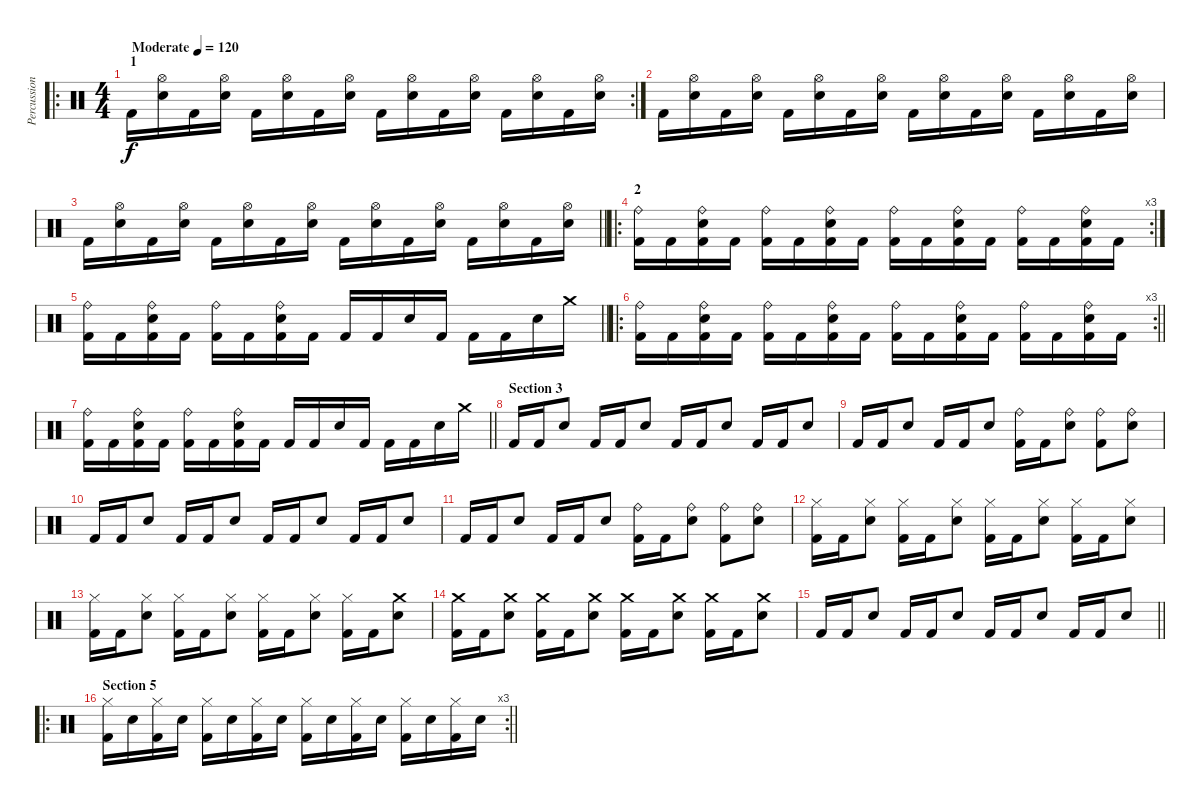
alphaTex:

\track ("Percussion" "Percussion") {instrument percussion}
\staff {score}
\articulation defaults
\ro
\rc 2
\ts (4 4)
\section ("" " 1")
\tempo (120 "Moderate")
\clef neutral
\ks c "Kick (hit) 2".16{dy f}
("Snare (hit) 2" "Hi-Hat (open)").16 "Kick (hit) 2".16 ("Snare (hit) 2" "Hi-Hat (open)").16 "Kick (hit) 2".16 ("Snare (hit) 2" "Hi-Hat (open)").16 "Kick (hit) 2".16 ("Snare (hit) 2" "Hi-Hat (open)").16 "Kick (hit) 2".16 ("Snare (hit) 2" "Hi-Hat (open)").16 "Kick (hit) 2".16 ("Snare (hit) 2" "Hi-Hat (open)").16 "Kick (hit) 2".16 ("Snare (hit) 2" "Hi-Hat (open)").16 "Kick (hit) 2".16 ("Snare (hit) 2" "Hi-Hat (open)").16 |
"Kick (hit) 2".16 ("Snare (hit) 2" "Hi-Hat (open)").16 "Kick (hit) 2".16 ("Snare (hit) 2" "Hi-Hat (open)").16 "Kick (hit) 2".16 ("Snare (hit) 2" "Hi-Hat (open)").16 "Kick (hit) 2".16 ("Snare (hit) 2" "Hi-Hat (open)").16 "Kick (hit) 2".16 ("Snare (hit) 2" "Hi-Hat (open)").16 "Kick (hit) 2".16 ("Snare (hit) 2" "Hi-Hat (open)").16 "Kick (hit) 2".16 ("Snare (hit) 2" "Hi-Hat (open)").16 "Kick (hit) 2".16 ("Snare (hit) 2" "Hi-Hat (open)").16 |
\barLineRight lightlight "Kick (hit) 2".16
("Snare (hit) 2" "Hi-Hat (open)").16 "Kick (hit) 2".16 ("Snare (hit) 2" "Hi-Hat (open)").16 "Kick (hit) 2".16 ("Snare (hit) 2" "Hi-Hat (open)").16 "Kick (hit) 2".16 ("Snare (hit) 2" "Hi-Hat (open)").16 "Kick (hit) 2".16 ("Snare (hit) 2" "Hi-Hat (open)").16 "Kick (hit) 2".16 ("Snare (hit) 2" "Hi-Hat (open)").16 "Kick (hit) 2".16 ("Snare (hit) 2" "Hi-Hat (open)").16 "Kick (hit) 2".16 ("Snare (hit) 2" "Hi-Hat (open)").16 |
\ro
\rc 3
\section ("" "2")
("Kick (hit) 2" "Ride (bell)").16 "Kick (hit) 2".16 ("Kick (hit) 2" "Snare (hit) 2" "Ride (bell)").16 "Kick (hit) 2".16 ("Kick (hit) 2" "Ride (bell)").16 "Kick (hit) 2".16 ("Kick (hit) 2" "Snare (hit) 2" "Ride (bell)").16 "Kick (hit) 2".16 ("Kick (hit) 2" "Ride (bell)").16 "Kick (hit) 2".16 ("Kick (hit) 2" "Snare (hit) 2" "Ride (bell)").16 "Kick (hit) 2".16 ("Kick (hit) 2" "Ride (bell)").16 "Kick (hit) 2".16 ("Kick (hit) 2" "Snare (hit) 2" "Ride (bell)").16 "Kick (hit) 2".16 |
\barLineRight lightlight
("Kick (hit) 2" "Ride (bell)").16 "Kick (hit) 2".16 ("Kick (hit) 2" "Snare (hit) 2" "Ride (bell)").16 "Kick (hit) 2".16 ("Kick (hit) 2" "Ride (bell)").16 "Kick (hit) 2".16 ("Kick (hit) 2" "Snare (hit) 2" "Ride (bell)").16 "Kick (hit) 2".16 "Kick (hit) 2".16 "Kick (hit) 2".16 "Snare (hit) 2".16 "Kick (hit) 2".16 "Kick (hit) 2".16 "Kick (hit) 2".16 "Snare (hit) 2".16 "Crash medium (hit)".16 |
\ro
\rc 3
\barLineRight lightlight
("Kick (hit) 2" "Ride (bell)").16 "Kick (hit) 2".16 ("Kick (hit) 2" "Snare (hit) 2" "Ride (bell)").16 "Kick (hit) 2".16 ("Kick (hit) 2" "Ride (bell)").16 "Kick (hit) 2".16 ("Kick (hit) 2" "Snare (hit) 2" "Ride (bell)").16 "Kick (hit) 2".16 ("Kick (hit) 2" "Ride (bell)").16 "Kick (hit) 2".16 ("Kick (hit) 2" "Snare (hit) 2" "Ride (bell)").16 "Kick (hit) 2".16 ("Kick (hit) 2" "Ride (bell)").16 "Kick (hit) 2".16 ("Kick (hit) 2" "Snare (hit) 2" "Ride (bell)").16 "Kick (hit) 2".16 |
\barLineRight lightlight
("Kick (hit) 2" "Ride (bell)").16 "Kick (hit) 2".16 ("Kick (hit) 2" "Snare (hit) 2" "Ride (bell)").16 "Kick (hit) 2".16 ("Kick (hit) 2" "Ride (bell)").16 "Kick (hit) 2".16 ("Kick (hit) 2" "Snare (hit) 2" "Ride (bell)").16 "Kick (hit) 2".16 "Kick (hit) 2".16 "Kick (hit) 2".16 "Snare (hit) 2".16 "Kick (hit) 2".16 "Kick (hit) 2".16 "Kick (hit) 2".16 "Snare (hit) 2".16 "Crash medium (hit)".16 |
\section ("" "Section 3")
"Kick (hit) 2".16 "Kick (hit) 2".16 "Snare (hit) 2".8 "Kick (hit) 2".16 "Kick (hit) 2".16 "Snare (hit) 2".8 "Kick (hit) 2".16 "Kick (hit) 2".16 "Snare (hit) 2".8 "Kick (hit) 2".16 "Kick (hit) 2".16 "Snare (hit) 2".8 |
"Kick (hit) 2".16 "Kick (hit) 2".16 "Snare (hit) 2".8 "Kick (hit) 2".16 "Kick (hit) 2".16 "Snare (hit) 2".8 ("Kick (hit) 2" "Ride (bell)").16 "Kick (hit) 2".16 ("Snare (hit) 2" "Ride (bell)").8 ("Ride (bell)" "Kick (hit) 2").8 ("Ride (bell)" "Snare (hit) 2").8 |
"Kick (hit) 2".16 "Kick (hit) 2".16 "Snare (hit) 2".8 "Kick (hit) 2".16 "Kick (hit) 2".16 "Snare (hit) 2".8 "Kick (hit) 2".16 "Kick (hit) 2".16 "Snare (hit) 2".8 "Kick (hit) 2".16 "Kick (hit) 2".16 "Snare (hit) 2".8 |
"Kick (hit) 2".16 "Kick (hit) 2".16 "Snare (hit) 2".8 "Kick (hit) 2".16 "Kick (hit) 2".16 "Snare (hit) 2".8 ("Kick (hit) 2" "Ride (bell)").16 "Kick (hit) 2".16 ("Snare (hit) 2" "Ride (bell)").8 ("Ride (bell)" "Kick (hit) 2").8 ("Ride (bell)" "Snare (hit) 2").8 |
("Kick (hit) 2" "Hi-Hat (closed)").16 "Kick (hit) 2".16 ("Snare (hit) 2" "Hi-Hat (closed)").8 ("Kick (hit) 2" "Hi-Hat (closed)").16 "Kick (hit) 2".16 ("Snare (hit) 2" "Hi-Hat (closed)").8 ("Kick (hit) 2" "Hi-Hat (closed)").16 "Kick (hit) 2".16 ("Snare (hit) 2" "Hi-Hat (closed)").8 ("Kick (hit) 2" "Hi-Hat (closed)").16 "Kick (hit) 2".16 ("Snare (hit) 2" "Hi-Hat (closed)").8 |
("Kick (hit) 2" "Hi-Hat (closed)").16 "Kick (hit) 2".16 ("Snare (hit) 2" "Hi-Hat (closed)").8 ("Kick (hit) 2" "Hi-Hat (closed)").16 "Kick (hit) 2".16 ("Snare (hit) 2" "Hi-Hat (closed)").8 ("Kick (hit) 2" "Hi-Hat (closed)").16 "Kick (hit) 2".16 ("Snare (hit) 2" "Hi-Hat (closed)").8 ("Kick (hit) 2" "Hi-Hat (closed)").16 "Kick (hit) 2".16 ("Snare (hit) 2" "Crash medium (hit)").8 |
("Kick (hit) 2" "Crash medium (hit)").16 "Kick (hit) 2".16 ("Snare (hit) 2" "Crash medium (hit)").8 ("Kick (hit) 2" "Crash medium (hit)").16 "Kick (hit) 2".16 ("Snare (hit) 2" "Crash medium (hit)").8 ("Kick (hit) 2" "Crash medium (hit)").16 "Kick (hit) 2".16 ("Snare (hit) 2" "Crash medium (hit)").8 ("Kick (hit) 2" "Crash medium (hit)").16 "Kick (hit) 2".16 ("Snare (hit) 2" "Crash medium (hit)").8 |
\barLineRight lightlight "Kick (hit) 2".16 "Kick (hit) 2".16 "Snare (hit) 2".8 "Kick (hit) 2".16 "Kick (hit) 2".16 "Snare (hit) 2".8 "Kick (hit) 2".16 "Kick (hit) 2".16 "Snare (hit) 2".8 "Kick (hit) 2".16 "Kick (hit) 2".16 "Snare (hit) 2".8
|
\ro
\rc 3
\section ("" "Section 5")
\barLineRight lightlight
("Kick (hit) 2" "Hi-Hat (closed)").16 "Snare (hit) 2".16 ("Kick (hit) 2" "Hi-Hat (closed)").16 "Snare (hit) 2".16 ("Kick (hit) 2" "Hi-Hat (closed)").16 "Snare (hit) 2".16 ("Kick (hit) 2" "Hi-Hat (closed)").16 "Snare (hit) 2".16 ("Kick (hit) 2" "Hi-Hat (closed)").16 "Snare (hit) 2".16 ("Kick (hit) 2" "Hi-Hat (closed)").16 "Snare (hit) 2".16 ("Kick (hit) 2" "Hi-Hat (closed)").16 "Snare (hit) 2".16 ("Kick (hit) 2" "Hi-Hat (closed)").16 "Snare (hit) 2".16
